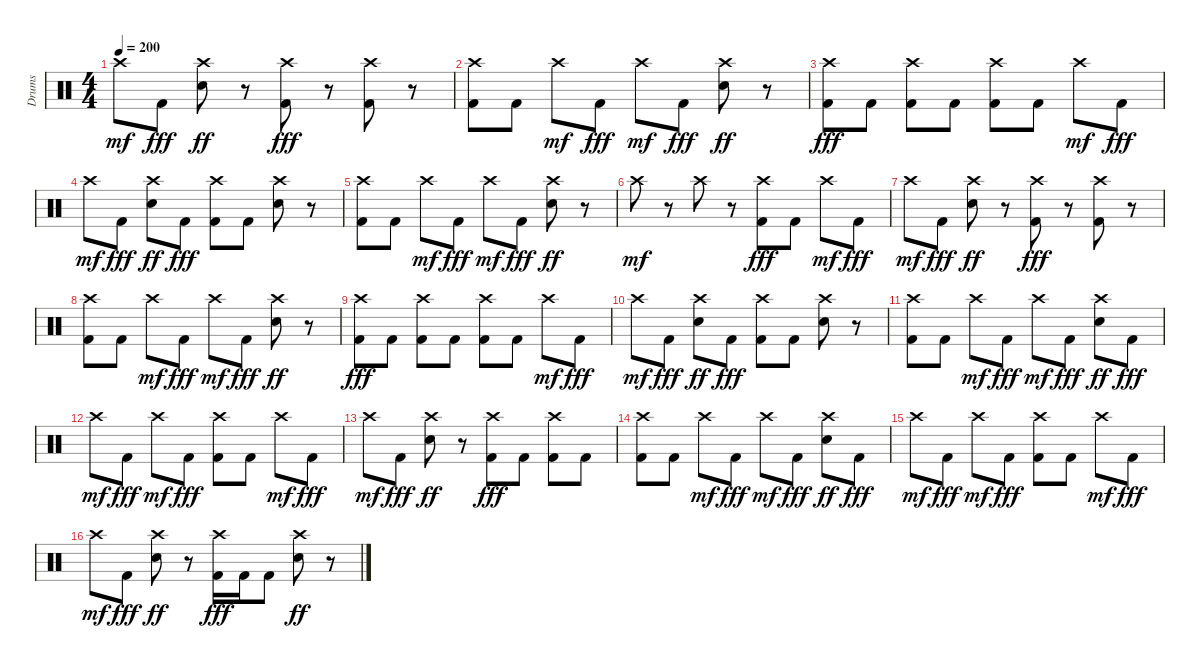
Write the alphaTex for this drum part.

\track ("Drums" "Drums") {instrument percussion}
\staff {score}
\articulation defaults
\ts (4 4)
\tempo 200
\clef neutral
\ks c "Crash high (hit)".8{dy mf} "Kick (hit) 2".8{dy fff}
("Crash high (hit)" "Electric Snare (hit)").8{dy ff} r.8 ("Crash high (hit)" "Kick (hit) 2").8{dy fff} r.8 ("Crash high (hit)" "Kick (hit) 2").8 r.8 |
("Crash high (hit)" "Kick (hit) 2").8 "Kick (hit) 2".8 "Crash high (hit)".8{dy mf} "Kick (hit) 2".8{dy fff} "Crash high (hit)".8{dy mf} "Kick (hit) 2".8{dy fff} ("Crash high (hit)" "Electric Snare (hit)").8{dy ff} r.8 |
("Crash high (hit)" "Kick (hit) 2").8{dy fff} "Kick (hit) 2".8 ("Crash high (hit)" "Kick (hit) 2").8 "Kick (hit) 2".8 ("Crash high (hit)" "Kick (hit) 2").8 "Kick (hit) 2".8 "Crash high (hit)".8{dy mf} "Kick (hit) 2".8{dy fff} |
"Crash high (hit)".8{dy mf} "Kick (hit) 2".8{dy fff} ("Crash high (hit)" "Electric Snare (hit)").8{dy ff} "Kick (hit) 2".8{dy fff} ("Crash high (hit)" "Kick (hit) 2").8 "Kick (hit) 2".8 ("Crash high (hit)" "Electric Snare (hit)").8 r.8 |
("Crash high (hit)" "Kick (hit) 2").8 "Kick (hit) 2".8 "Crash high (hit)".8{dy mf} "Kick (hit) 2".8{dy fff} "Crash high (hit)".8{dy mf} "Kick (hit) 2".8{dy fff} ("Crash high (hit)" "Electric Snare (hit)").8{dy ff} r.8 |
"Crash high (hit)".8{dy mf} r.8 "Crash high (hit)".8 r.8 ("Crash high (hit)" "Kick (hit) 2").8{dy fff} "Kick (hit) 2".8 "Crash high (hit)".8{dy mf} "Kick (hit) 2".8{dy fff} |
"Crash high (hit)".8{dy mf} "Kick (hit) 2".8{dy fff} ("Crash high (hit)" "Electric Snare (hit)").8{dy ff} r.8 ("Crash high (hit)" "Kick (hit) 2").8{dy fff} r.8 ("Crash high (hit)" "Kick (hit) 2").8 r.8 |
("Crash high (hit)" "Kick (hit) 2").8 "Kick (hit) 2".8 "Crash high (hit)".8{dy mf} "Kick (hit) 2".8{dy fff} "Crash high (hit)".8{dy mf} "Kick (hit) 2".8{dy fff} ("Crash high (hit)" "Electric Snare (hit)").8{dy ff} r.8 |
("Crash high (hit)" "Kick (hit) 2").8{dy fff} "Kick (hit) 2".8 ("Crash high (hit)" "Kick (hit) 2").8 "Kick (hit) 2".8 ("Crash high (hit)" "Kick (hit) 2").8 "Kick (hit) 2".8 "Crash high (hit)".8{dy mf} "Kick (hit) 2".8{dy fff} |
"Crash high (hit)".8{dy mf} "Kick (hit) 2".8{dy fff} ("Crash high (hit)" "Electric Snare (hit)").8{dy ff} "Kick (hit) 2".8{dy fff} ("Crash high (hit)" "Kick (hit) 2").8 "Kick (hit) 2".8 ("Crash high (hit)" "Electric Snare (hit)").8 r.8 |
("Crash high (hit)" "Kick (hit) 2").8 "Kick (hit) 2".8 "Crash high (hit)".8{dy mf} "Kick (hit) 2".8{dy fff} "Crash high (hit)".8{dy mf} "Kick (hit) 2".8{dy fff} ("Crash high (hit)" "Electric Snare (hit)").8{dy ff} "Kick (hit) 2".8{dy fff} |
"Crash high (hit)".8{dy mf} "Kick (hit) 2".8{dy fff} "Crash high (hit)".8{dy mf} "Kick (hit) 2".8{dy fff} ("Crash high (hit)" "Kick (hit) 2").8 "Kick (hit) 2".8 "Crash high (hit)".8{dy mf} "Kick (hit) 2".8{dy fff} |
"Crash high (hit)".8{dy mf} "Kick (hit) 2".8{dy fff} ("Crash high (hit)" "Electric Snare (hit)").8{dy ff} r.8 ("Crash high (hit)" "Kick (hit) 2").8{dy fff} "Kick (hit) 2".8 ("Crash high (hit)" "Kick (hit) 2").8 "Kick (hit) 2".8 |
("Crash high (hit)" "Kick (hit) 2").8 "Kick (hit) 2".8 "Crash high (hit)".8{dy mf} "Kick (hit) 2".8{dy fff} "Crash high (hit)".8{dy mf} "Kick (hit) 2".8{dy fff} ("Crash high (hit)" "Electric Snare (hit)").8{dy ff} "Kick (hit) 2".8{dy fff} |
"Crash high (hit)".8{dy mf} "Kick (hit) 2".8{dy fff} "Crash high (hit)".8{dy mf} "Kick (hit) 2".8{dy fff} ("Crash high (hit)" "Kick (hit) 2").8 "Kick (hit) 2".8 "Crash high (hit)".8{dy mf} "Kick (hit) 2".8{dy fff} |
"Crash high (hit)".8{dy mf} "Kick (hit) 2".8{dy fff} ("Crash high (hit)" "Electric Snare (hit)").8{dy ff} r.8 ("Crash high (hit)" "Kick (hit) 2").16{dy fff} "Kick (hit) 2".16 "Kick (hit) 2".8 ("Crash high (hit)" "Electric Snare (hit)").8{dy ff} r.8
